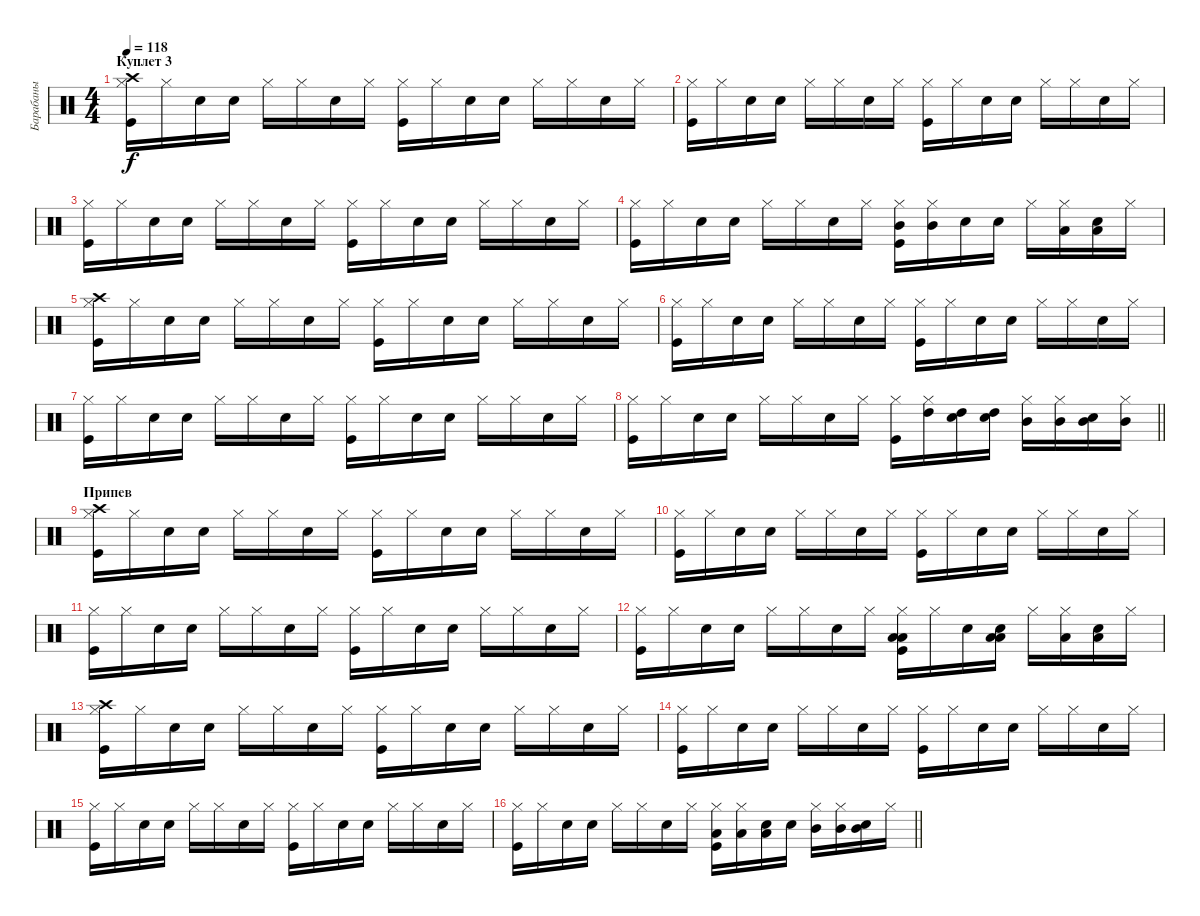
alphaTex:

\track ("Барабаны" "Барабаны") {instrument percussion}
\staff {score}
\articulation defaults
\ts (4 4)
\section ("" "Куплет 3")
\tempo 118
\clef neutral
\ks c
("Kick (hit)" "Hi-Hat (closed)" "Crash high (hit)").16{dy f} "Hi-Hat (closed)".16 "Snare (hit) 2".16 "Snare (hit) 2".16 "Hi-Hat (closed)".16 "Hi-Hat (closed)".16 "Snare (hit) 2".16 "Hi-Hat (closed)".16 ("Kick (hit)" "Hi-Hat (closed)").16 "Hi-Hat (closed)".16 "Snare (hit) 2".16 "Snare (hit) 2".16 "Hi-Hat (closed)".16 "Hi-Hat (closed)".16 "Snare (hit) 2".16 "Hi-Hat (closed)".16 |
("Kick (hit)" "Hi-Hat (closed)").16 "Hi-Hat (closed)".16 "Snare (hit) 2".16 "Snare (hit) 2".16 "Hi-Hat (closed)".16 "Hi-Hat (closed)".16 "Snare (hit) 2".16 "Hi-Hat (closed)".16 ("Kick (hit)" "Hi-Hat (closed)").16 "Hi-Hat (closed)".16 "Snare (hit) 2".16 "Snare (hit) 2".16 "Hi-Hat (closed)".16 "Hi-Hat (closed)".16 "Snare (hit) 2".16 "Hi-Hat (closed)".16 |
("Kick (hit)" "Hi-Hat (closed)").16 "Hi-Hat (closed)".16 "Snare (hit) 2".16 "Snare (hit) 2".16 "Hi-Hat (closed)".16 "Hi-Hat (closed)".16 "Snare (hit) 2".16 "Hi-Hat (closed)".16 ("Kick (hit)" "Hi-Hat (closed)").16 "Hi-Hat (closed)".16 "Snare (hit) 2".16 "Snare (hit) 2".16 "Hi-Hat (closed)".16 "Hi-Hat (closed)".16 "Snare (hit) 2".16 "Hi-Hat (closed)".16 |
("Kick (hit)" "Hi-Hat (closed)").16 "Hi-Hat (closed)".16 "Snare (hit) 2".16 "Snare (hit) 2".16 "Hi-Hat (closed)".16 "Hi-Hat (closed)".16 "Snare (hit) 2".16 "Hi-Hat (closed)".16 ("Kick (hit)" "Hi-Hat (closed)" "Mid Tom (hit)").16 ("Hi-Hat (closed)" "Mid Tom (hit)").16 "Snare (hit) 2".16 "Snare (hit) 2".16 "Hi-Hat (closed)".16 ("Hi-Hat (closed)" "Low Floor Tom (hit)").16 ("Snare (hit) 2" "Low Floor Tom (hit)").16 "Hi-Hat (closed)".16 |
("Kick (hit)" "Hi-Hat (closed)" "Crash high (hit)").16 "Hi-Hat (closed)".16 "Snare (hit) 2".16 "Snare (hit) 2".16 "Hi-Hat (closed)".16 "Hi-Hat (closed)".16 "Snare (hit) 2".16 "Hi-Hat (closed)".16 ("Kick (hit)" "Hi-Hat (closed)").16 "Hi-Hat (closed)".16 "Snare (hit) 2".16 "Snare (hit) 2".16 "Hi-Hat (closed)".16 "Hi-Hat (closed)".16 "Snare (hit) 2".16 "Hi-Hat (closed)".16 |
("Kick (hit)" "Hi-Hat (closed)").16 "Hi-Hat (closed)".16 "Snare (hit) 2".16 "Snare (hit) 2".16 "Hi-Hat (closed)".16 "Hi-Hat (closed)".16 "Snare (hit) 2".16 "Hi-Hat (closed)".16 ("Kick (hit)" "Hi-Hat (closed)").16 "Hi-Hat (closed)".16 "Snare (hit) 2".16 "Snare (hit) 2".16 "Hi-Hat (closed)".16 "Hi-Hat (closed)".16 "Snare (hit) 2".16 "Hi-Hat (closed)".16 |
("Kick (hit)" "Hi-Hat (closed)").16 "Hi-Hat (closed)".16 "Snare (hit) 2".16 "Snare (hit) 2".16 "Hi-Hat (closed)".16 "Hi-Hat (closed)".16 "Snare (hit) 2".16 "Hi-Hat (closed)".16 ("Kick (hit)" "Hi-Hat (closed)").16 "Hi-Hat (closed)".16 "Snare (hit) 2".16 "Snare (hit) 2".16 "Hi-Hat (closed)".16 "Hi-Hat (closed)".16 "Snare (hit) 2".16 "Hi-Hat (closed)".16 |
\barLineRight lightlight
("Kick (hit)" "Hi-Hat (closed)").16 "Hi-Hat (closed)".16 "Snare (hit) 2".16 "Snare (hit) 2".16 "Hi-Hat (closed)".16 "Hi-Hat (closed)".16 "Snare (hit) 2".16 "Hi-Hat (closed)".16 ("Kick (hit)" "Hi-Hat (closed)").16 ("Hi-Hat (closed)" "High Tom (hit)").16 ("Snare (hit) 2" "High Tom (hit)").16 ("Snare (hit) 2" "High Tom (hit)").16 ("Hi-Hat (closed)" "Mid Tom (hit)").16 ("Hi-Hat (closed)" "Mid Tom (hit)").16 ("Snare (hit) 2" "Mid Tom (hit)").16 ("Hi-Hat (closed)" "Mid Tom (hit)").16 |
\section ("" "Припев")
("Kick (hit)" "Hi-Hat (closed)" "Crash high (hit)").16 "Hi-Hat (closed)".16 "Snare (hit) 2".16 "Snare (hit) 2".16 "Hi-Hat (closed)".16 "Hi-Hat (closed)".16 "Snare (hit) 2".16 "Hi-Hat (closed)".16 ("Kick (hit)" "Hi-Hat (closed)").16 "Hi-Hat (closed)".16 "Snare (hit) 2".16 "Snare (hit) 2".16 "Hi-Hat (closed)".16 "Hi-Hat (closed)".16 "Snare (hit) 2".16 "Hi-Hat (closed)".16 |
("Kick (hit)" "Hi-Hat (closed)").16 "Hi-Hat (closed)".16 "Snare (hit) 2".16 "Snare (hit) 2".16 "Hi-Hat (closed)".16 "Hi-Hat (closed)".16 "Snare (hit) 2".16 "Hi-Hat (closed)".16 ("Kick (hit)" "Hi-Hat (closed)").16 "Hi-Hat (closed)".16 "Snare (hit) 2".16 "Snare (hit) 2".16 "Hi-Hat (closed)".16 "Hi-Hat (closed)".16 "Snare (hit) 2".16 "Hi-Hat (closed)".16 |
("Kick (hit)" "Hi-Hat (closed)").16 "Hi-Hat (closed)".16 "Snare (hit) 2".16 "Snare (hit) 2".16 "Hi-Hat (closed)".16 "Hi-Hat (closed)".16 "Snare (hit) 2".16 "Hi-Hat (closed)".16 ("Kick (hit)" "Hi-Hat (closed)").16 "Hi-Hat (closed)".16 "Snare (hit) 2".16 "Snare (hit) 2".16 "Hi-Hat (closed)".16 "Hi-Hat (closed)".16 "Snare (hit) 2".16 "Hi-Hat (closed)".16 |
("Kick (hit)" "Hi-Hat (closed)").16 "Hi-Hat (closed)".16 "Snare (hit) 2".16 "Snare (hit) 2".16 "Hi-Hat (closed)".16 "Hi-Hat (closed)".16 "Snare (hit) 2".16 "Hi-Hat (closed)".16 ("Kick (hit)" "Hi-Hat (closed)" "Low Floor Tom (hit)" "Low Tom (hit)").16 "Hi-Hat (closed)".16 "Snare (hit) 2".16 ("Snare (hit) 2" "Low Floor Tom (hit)" "Low Tom (hit)").16 "Hi-Hat (closed)".16 ("Hi-Hat (closed)" "Low Floor Tom (hit)").16 ("Snare (hit) 2" "Low Floor Tom (hit)").16 "Hi-Hat (closed)".16 |
("Kick (hit)" "Hi-Hat (closed)" "Crash high (hit)").16 "Hi-Hat (closed)".16 "Snare (hit) 2".16 "Snare (hit) 2".16 "Hi-Hat (closed)".16 "Hi-Hat (closed)".16 "Snare (hit) 2".16 "Hi-Hat (closed)".16 ("Kick (hit)" "Hi-Hat (closed)").16 "Hi-Hat (closed)".16 "Snare (hit) 2".16 "Snare (hit) 2".16 "Hi-Hat (closed)".16 "Hi-Hat (closed)".16 "Snare (hit) 2".16 "Hi-Hat (closed)".16 |
("Kick (hit)" "Hi-Hat (closed)").16 "Hi-Hat (closed)".16 "Snare (hit) 2".16 "Snare (hit) 2".16 "Hi-Hat (closed)".16 "Hi-Hat (closed)".16 "Snare (hit) 2".16 "Hi-Hat (closed)".16 ("Kick (hit)" "Hi-Hat (closed)").16 "Hi-Hat (closed)".16 "Snare (hit) 2".16 "Snare (hit) 2".16 "Hi-Hat (closed)".16 "Hi-Hat (closed)".16 "Snare (hit) 2".16 "Hi-Hat (closed)".16 |
("Kick (hit)" "Hi-Hat (closed)").16 "Hi-Hat (closed)".16 "Snare (hit) 2".16 "Snare (hit) 2".16 "Hi-Hat (closed)".16 "Hi-Hat (closed)".16 "Snare (hit) 2".16 "Hi-Hat (closed)".16 ("Kick (hit)" "Hi-Hat (closed)").16 "Hi-Hat (closed)".16 "Snare (hit) 2".16 "Snare (hit) 2".16 "Hi-Hat (closed)".16 "Hi-Hat (closed)".16 "Snare (hit) 2".16 "Hi-Hat (closed)".16 |
\barLineRight lightlight
("Kick (hit)" "Hi-Hat (closed)").16 "Hi-Hat (closed)".16 "Snare (hit) 2".16 "Snare (hit) 2".16 "Hi-Hat (closed)".16 "Hi-Hat (closed)".16 "Snare (hit) 2".16 "Hi-Hat (closed)".16 ("Kick (hit)" "Hi-Hat (closed)" "Low Tom (hit)").16 ("Hi-Hat (closed)" "Low Tom (hit)").16 ("Snare (hit) 2" "Low Tom (hit)").16 "Snare (hit) 2".16 ("Hi-Hat (closed)" "Mid Tom (hit)").16 ("Hi-Hat (closed)" "Mid Tom (hit)").16 ("Snare (hit) 2" "Mid Tom (hit)").16 "Hi-Hat (closed)".16
